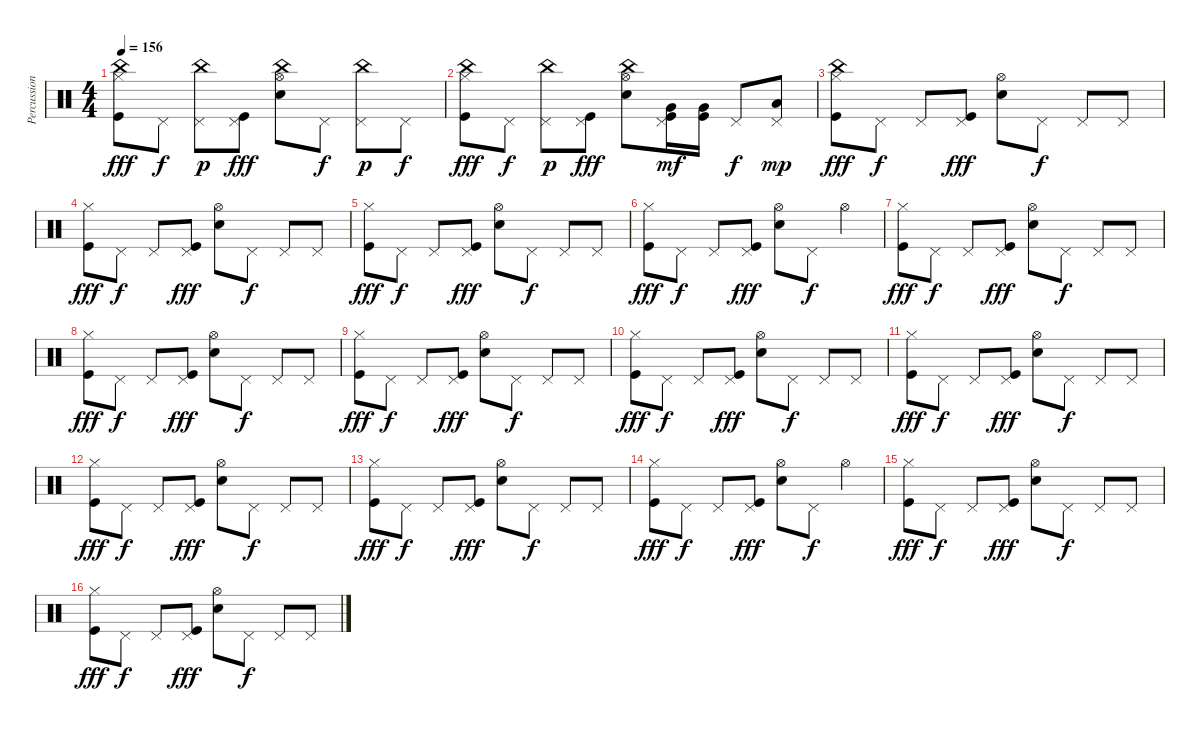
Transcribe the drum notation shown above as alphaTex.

\track ("Percussion" "Percussion") {instrument percussion}
\staff {score}
\articulation defaults
\ts (4 4)
\tempo 156
\clef neutral
\ks c
("China (hit)" "Hi-Hat (closed)" "Kick (hit)").8{dy fff} "Pedal Hi-Hat (hit)".8{dy f} ("China (hit)" "Pedal Hi-Hat (hit)").8{dy p} ("Pedal Hi-Hat (hit)" "Kick (hit)").8{dy fff} ("China (hit)" "Hi-Hat (open)" "Snare (hit) 2").8 "Pedal Hi-Hat (hit)".8{dy f} ("China (hit)" "Pedal Hi-Hat (hit)").8{dy p} "Pedal Hi-Hat (hit)".8{dy f} |
("China (hit)" "Hi-Hat (closed)" "Kick (hit)").8{dy fff} "Pedal Hi-Hat (hit)".8{dy f} ("China (hit)" "Pedal Hi-Hat (hit)").8{dy p} ("Pedal Hi-Hat (hit)" "Kick (hit)").8{dy fff} ("China (hit)" "Hi-Hat (open)" "Snare (hit) 2").8 ("Very Low Tom (hit)" "Pedal Hi-Hat (hit)" "Kick (hit)").16{dy mf} ("Very Low Tom (hit)" "Kick (hit)").16 "Pedal Hi-Hat (hit)".8{dy f} ("Low Tom (hit)" "Pedal Hi-Hat (hit)").8{dy mp} |
("China (hit)" "Hi-Hat (closed)" "Kick (hit)").8{dy fff} "Pedal Hi-Hat (hit)".8{dy f} "Pedal Hi-Hat (hit)".8 ("Pedal Hi-Hat (hit)" "Kick (hit)").8{dy fff} ("Hi-Hat (open)" "Snare (hit) 2").8 "Pedal Hi-Hat (hit)".8{dy f} "Pedal Hi-Hat (hit)".8 "Pedal Hi-Hat (hit)".8 |
("Hi-Hat (closed)" "Kick (hit)").8{dy fff} "Pedal Hi-Hat (hit)".8{dy f} "Pedal Hi-Hat (hit)".8 ("Pedal Hi-Hat (hit)" "Kick (hit)").8{dy fff} ("Hi-Hat (open)" "Snare (hit) 2").8 "Pedal Hi-Hat (hit)".8{dy f} "Pedal Hi-Hat (hit)".8 "Pedal Hi-Hat (hit)".8 |
("Hi-Hat (closed)" "Kick (hit)").8{dy fff} "Pedal Hi-Hat (hit)".8{dy f} "Pedal Hi-Hat (hit)".8 ("Pedal Hi-Hat (hit)" "Kick (hit)").8{dy fff} ("Hi-Hat (open)" "Snare (hit) 2").8 "Pedal Hi-Hat (hit)".8{dy f} "Pedal Hi-Hat (hit)".8 "Pedal Hi-Hat (hit)".8 |
("Hi-Hat (closed)" "Kick (hit)").8{dy fff} "Pedal Hi-Hat (hit)".8{dy f} "Pedal Hi-Hat (hit)".8 ("Pedal Hi-Hat (hit)" "Kick (hit)").8{dy fff} ("Hi-Hat (open)" "Snare (hit) 2").8 "Pedal Hi-Hat (hit)".8{dy f} "Hi-Hat (open)".4 |
("Hi-Hat (closed)" "Kick (hit)").8{dy fff} "Pedal Hi-Hat (hit)".8{dy f} "Pedal Hi-Hat (hit)".8 ("Pedal Hi-Hat (hit)" "Kick (hit)").8{dy fff} ("Hi-Hat (open)" "Snare (hit) 2").8 "Pedal Hi-Hat (hit)".8{dy f} "Pedal Hi-Hat (hit)".8 "Pedal Hi-Hat (hit)".8 |
("Hi-Hat (closed)" "Kick (hit)").8{dy fff} "Pedal Hi-Hat (hit)".8{dy f} "Pedal Hi-Hat (hit)".8 ("Pedal Hi-Hat (hit)" "Kick (hit)").8{dy fff} ("Hi-Hat (open)" "Snare (hit) 2").8 "Pedal Hi-Hat (hit)".8{dy f} "Pedal Hi-Hat (hit)".8 "Pedal Hi-Hat (hit)".8 |
("Hi-Hat (closed)" "Kick (hit)").8{dy fff} "Pedal Hi-Hat (hit)".8{dy f} "Pedal Hi-Hat (hit)".8 ("Pedal Hi-Hat (hit)" "Kick (hit)").8{dy fff} ("Hi-Hat (open)" "Snare (hit) 2").8 "Pedal Hi-Hat (hit)".8{dy f} "Pedal Hi-Hat (hit)".8 "Pedal Hi-Hat (hit)".8 |
("Hi-Hat (closed)" "Kick (hit)").8{dy fff} "Pedal Hi-Hat (hit)".8{dy f} "Pedal Hi-Hat (hit)".8 ("Pedal Hi-Hat (hit)" "Kick (hit)").8{dy fff} ("Hi-Hat (open)" "Snare (hit) 2").8 "Pedal Hi-Hat (hit)".8{dy f} "Pedal Hi-Hat (hit)".8 "Pedal Hi-Hat (hit)".8 |
("Hi-Hat (closed)" "Kick (hit)").8{dy fff} "Pedal Hi-Hat (hit)".8{dy f} "Pedal Hi-Hat (hit)".8 ("Pedal Hi-Hat (hit)" "Kick (hit)").8{dy fff} ("Hi-Hat (open)" "Snare (hit) 2").8 "Pedal Hi-Hat (hit)".8{dy f} "Pedal Hi-Hat (hit)".8 "Pedal Hi-Hat (hit)".8 |
("Hi-Hat (closed)" "Kick (hit)").8{dy fff} "Pedal Hi-Hat (hit)".8{dy f} "Pedal Hi-Hat (hit)".8 ("Pedal Hi-Hat (hit)" "Kick (hit)").8{dy fff} ("Hi-Hat (open)" "Snare (hit) 2").8 "Pedal Hi-Hat (hit)".8{dy f} "Pedal Hi-Hat (hit)".8 "Pedal Hi-Hat (hit)".8 |
("Hi-Hat (closed)" "Kick (hit)").8{dy fff} "Pedal Hi-Hat (hit)".8{dy f} "Pedal Hi-Hat (hit)".8 ("Pedal Hi-Hat (hit)" "Kick (hit)").8{dy fff} ("Hi-Hat (open)" "Snare (hit) 2").8 "Pedal Hi-Hat (hit)".8{dy f} "Pedal Hi-Hat (hit)".8 "Pedal Hi-Hat (hit)".8 |
("Hi-Hat (closed)" "Kick (hit)").8{dy fff} "Pedal Hi-Hat (hit)".8{dy f} "Pedal Hi-Hat (hit)".8 ("Pedal Hi-Hat (hit)" "Kick (hit)").8{dy fff} ("Hi-Hat (open)" "Snare (hit) 2").8 "Pedal Hi-Hat (hit)".8{dy f} "Hi-Hat (open)".4 |
("Hi-Hat (closed)" "Kick (hit)").8{dy fff} "Pedal Hi-Hat (hit)".8{dy f} "Pedal Hi-Hat (hit)".8 ("Pedal Hi-Hat (hit)" "Kick (hit)").8{dy fff} ("Hi-Hat (open)" "Snare (hit) 2").8 "Pedal Hi-Hat (hit)".8{dy f} "Pedal Hi-Hat (hit)".8 "Pedal Hi-Hat (hit)".8 |
("Hi-Hat (closed)" "Kick (hit)").8{dy fff} "Pedal Hi-Hat (hit)".8{dy f} "Pedal Hi-Hat (hit)".8 ("Pedal Hi-Hat (hit)" "Kick (hit)").8{dy fff} ("Hi-Hat (open)" "Snare (hit) 2").8 "Pedal Hi-Hat (hit)".8{dy f} "Pedal Hi-Hat (hit)".8 "Pedal Hi-Hat (hit)".8
